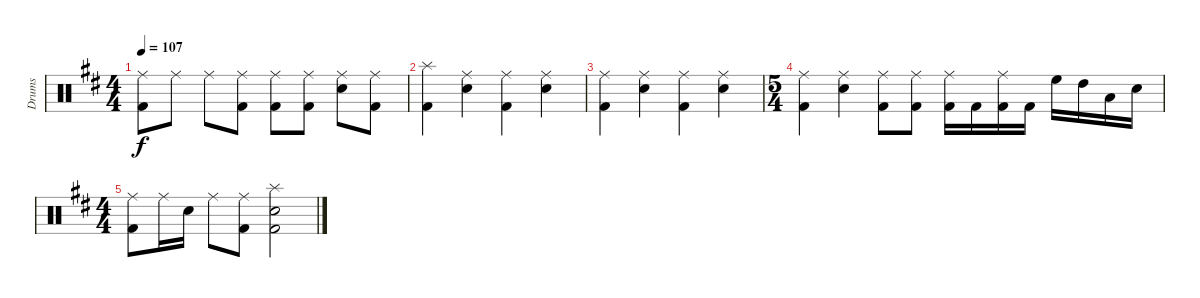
\bracketExtendMode groupsimilarinstruments
\track ("Drumkit" "Drums") {multiBarRest instrument percussion}
\staff {score}
\articulation defaults
\ts (4 4)
\tempo 107
\clef neutral
\ks bminor
("Kick (hit) 2"{acc forcenatural} "Ride (middle)"{acc forcenatural}).8{dy f beam Down} "Ride (middle)"{acc forcenatural}.8{beam Down} "Ride (middle)"{acc forcenatural}.8{beam Down} ("Ride (middle)"{acc forcenatural} "Kick (hit) 2"{acc forcenatural}).8{beam Down} ("Kick (hit) 2"{acc forcenatural} "Ride (middle)"{acc forcenatural}).8{beam Down} ("Kick (hit) 2"{acc forcenatural} "Ride (middle)"{acc forcenatural}).8{beam Down} ("Snare (hit) 2"{acc forcenatural} "Ride (middle)"{acc forcenatural}).8{beam Down} ("Ride (middle)"{acc forcenatural} "Kick (hit) 2"{acc forcenatural}).8{beam Down} |
("Splash (hit)"{acc forcenatural} "Kick (hit) 2"{acc forcenatural}).4{beam Down} ("Ride (middle)"{acc forcenatural} "Snare (hit) 2"{acc forcenatural}).4{beam Down} ("Ride (middle)"{acc forcenatural} "Kick (hit) 2"{acc forcenatural}).4{beam Down} ("Ride (middle)"{acc forcenatural} "Snare (hit) 2"{acc forcenatural}).4{beam Down} |
("Kick (hit) 2"{acc forcenatural} "Ride (middle)"{acc forcenatural}).4{beam Down} ("Ride (middle)"{acc forcenatural} "Snare (hit) 2"{acc forcenatural}).4{beam Down} ("Ride (middle)"{acc forcenatural} "Kick (hit) 2"{acc forcenatural}).4{beam Down} ("Ride (middle)"{acc forcenatural} "Snare (hit) 2"{acc forcenatural}).4{beam Down} |
\ts (5 4)
("Kick (hit) 2"{acc forcenatural} "Ride (middle)"{acc forcenatural}).4{beam Down} ("Snare (hit) 2"{acc forcenatural} "Ride (middle)"{acc forcenatural}).4{beam Down} ("Kick (hit) 2"{acc forcenatural} "Ride (middle)"{acc forcenatural}).8{beam Down} ("Kick (hit) 2"{acc forcenatural} "Ride (middle)"{acc forcenatural}).8{beam Down} ("Kick (hit) 2"{acc forcenatural} "Ride (middle)"{acc forcenatural}).16{beam Down} "Kick (hit) 2"{acc forcenatural}.16{beam Down} ("Kick (hit) 2"{acc forcenatural} "Ride (middle)"{acc forcenatural}).16{beam Down} "Kick (hit) 2"{acc forcenatural}.16{beam Down} "High Floor Tom (hit)"{acc forcenatural}.16{beam Down} "High Tom (hit)"{acc forcenatural}.16{beam Down} "Low Tom (hit)"{acc forcenatural}.16{beam Down} "Snare (hit) 2"{acc forcenatural}.16{beam Down} |
\ts (4 4)
("Kick (hit) 2"{acc forcenatural} "Ride (middle)"{acc forcenatural}).8{beam Down} "Ride (middle)"{acc forcenatural}.16{beam Down} "Snare (hit) 2"{acc forcenatural}.16{beam Down} "Ride (middle)"{acc forcenatural}.8{beam Down} ("Ride (middle)"{acc forcenatural} "Kick (hit) 2"{acc forcenatural}).8{beam Down} ("Splash (hit)"{acc forcenatural} "Snare (hit) 2"{acc forcenatural} "Kick (hit) 2"{acc forcenatural}).2{beam Down}
